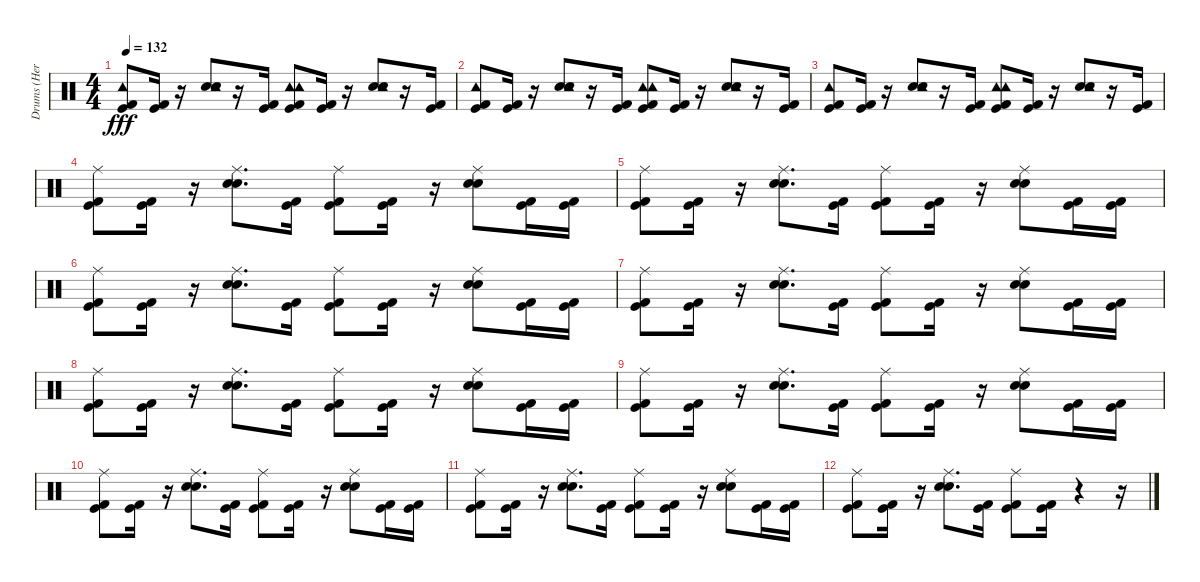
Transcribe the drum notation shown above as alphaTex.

\track ("Drums (Herb Alexander)" "Drums (Her") {instrument percussion}
\staff {score}
\articulation defaults
\ts (4 4)
\tempo 132
\clef neutral
\ks c
("Tambourine (hit)" "Kick (hit)" "Kick (hit) 2").8{dy fff} ("Kick (hit)" "Kick (hit) 2").16 r.16 ("Snare (hit) 2" "Hand Clap (hit)" "Tambourine (hit)").8 r.16 ("Kick (hit)" "Kick (hit) 2").16 ("Tambourine (hit)" "Kick (hit)" "Kick (hit) 2" "Tambourine (hit)").8 ("Kick (hit)" "Kick (hit) 2").16 r.16 ("Snare (hit) 2" "Hand Clap (hit)" "Tambourine (hit)").8 r.16 ("Kick (hit)" "Kick (hit) 2").16 |
("Tambourine (hit)" "Kick (hit)" "Kick (hit) 2").8 ("Kick (hit)" "Kick (hit) 2").16 r.16 ("Snare (hit) 2" "Hand Clap (hit)" "Tambourine (hit)").8 r.16 ("Kick (hit)" "Kick (hit) 2").16 ("Tambourine (hit)" "Kick (hit)" "Kick (hit) 2" "Tambourine (hit)").8 ("Kick (hit)" "Kick (hit) 2").16 r.16 ("Snare (hit) 2" "Hand Clap (hit)" "Tambourine (hit)").8 r.16 ("Kick (hit)" "Kick (hit) 2").16 |
("Tambourine (hit)" "Kick (hit)" "Kick (hit) 2").8 ("Kick (hit)" "Kick (hit) 2").16 r.16 ("Snare (hit) 2" "Hand Clap (hit)" "Tambourine (hit)").8 r.16 ("Kick (hit)" "Kick (hit) 2").16 ("Tambourine (hit)" "Kick (hit)" "Kick (hit) 2" "Tambourine (hit)").8 ("Kick (hit)" "Kick (hit) 2").16 r.16 ("Snare (hit) 2" "Hand Clap (hit)" "Tambourine (hit)").8 r.16 ("Kick (hit)" "Kick (hit) 2").16 |
("Ride (middle)" "Kick (hit)" "Kick (hit) 2").8 ("Kick (hit)" "Kick (hit) 2").16 r.16 ("Ride (middle)" "Snare (hit) 2" "Hand Clap (hit)").8{d} ("Kick (hit)" "Kick (hit) 2").16 ("Ride (middle)" "Kick (hit)" "Kick (hit) 2").8 ("Kick (hit)" "Kick (hit) 2").16 r.16 ("Ride (middle)" "Snare (hit) 2" "Hand Clap (hit)").8 ("Kick (hit)" "Kick (hit) 2").16 ("Kick (hit)" "Kick (hit) 2").16 |
("Ride (middle)" "Kick (hit)" "Kick (hit) 2").8 ("Kick (hit)" "Kick (hit) 2").16 r.16 ("Ride (middle)" "Snare (hit) 2" "Hand Clap (hit)").8{d} ("Kick (hit)" "Kick (hit) 2").16 ("Ride (middle)" "Kick (hit)" "Kick (hit) 2").8 ("Kick (hit)" "Kick (hit) 2").16 r.16 ("Ride (middle)" "Snare (hit) 2" "Hand Clap (hit)").8 ("Kick (hit)" "Kick (hit) 2").16 ("Kick (hit)" "Kick (hit) 2").16 |
("Ride (middle)" "Kick (hit)" "Kick (hit) 2").8 ("Kick (hit)" "Kick (hit) 2").16 r.16 ("Ride (middle)" "Snare (hit) 2" "Hand Clap (hit)").8{d} ("Kick (hit)" "Kick (hit) 2").16 ("Ride (middle)" "Kick (hit)" "Kick (hit) 2").8 ("Kick (hit)" "Kick (hit) 2").16 r.16 ("Ride (middle)" "Snare (hit) 2" "Hand Clap (hit)").8 ("Kick (hit)" "Kick (hit) 2").16 ("Kick (hit)" "Kick (hit) 2").16 |
("Ride (middle)" "Kick (hit)" "Kick (hit) 2").8 ("Kick (hit)" "Kick (hit) 2").16 r.16 ("Ride (middle)" "Snare (hit) 2" "Hand Clap (hit)").8{d} ("Kick (hit)" "Kick (hit) 2").16 ("Ride (middle)" "Kick (hit)" "Kick (hit) 2").8 ("Kick (hit)" "Kick (hit) 2").16 r.16 ("Ride (middle)" "Snare (hit) 2" "Hand Clap (hit)").8 ("Kick (hit)" "Kick (hit) 2").16 ("Kick (hit)" "Kick (hit) 2").16 |
("Ride (middle)" "Kick (hit)" "Kick (hit) 2").8 ("Kick (hit)" "Kick (hit) 2").16 r.16 ("Ride (middle)" "Snare (hit) 2" "Hand Clap (hit)").8{d} ("Kick (hit)" "Kick (hit) 2").16 ("Ride (middle)" "Kick (hit)" "Kick (hit) 2").8 ("Kick (hit)" "Kick (hit) 2").16 r.16 ("Ride (middle)" "Snare (hit) 2" "Hand Clap (hit)").8 ("Kick (hit)" "Kick (hit) 2").16 ("Kick (hit)" "Kick (hit) 2").16 |
("Ride (middle)" "Kick (hit)" "Kick (hit) 2").8 ("Kick (hit)" "Kick (hit) 2").16 r.16 ("Ride (middle)" "Snare (hit) 2" "Hand Clap (hit)").8{d} ("Kick (hit)" "Kick (hit) 2").16 ("Ride (middle)" "Kick (hit)" "Kick (hit) 2").8 ("Kick (hit)" "Kick (hit) 2").16 r.16 ("Ride (middle)" "Snare (hit) 2" "Hand Clap (hit)").8 ("Kick (hit)" "Kick (hit) 2").16 ("Kick (hit)" "Kick (hit) 2").16 |
("Ride (middle)" "Kick (hit)" "Kick (hit) 2").8 ("Kick (hit)" "Kick (hit) 2").16 r.16 ("Ride (middle)" "Snare (hit) 2" "Hand Clap (hit)").8{d} ("Kick (hit)" "Kick (hit) 2").16 ("Ride (middle)" "Kick (hit)" "Kick (hit) 2").8 ("Kick (hit)" "Kick (hit) 2").16 r.16 ("Ride (middle)" "Snare (hit) 2" "Hand Clap (hit)").8 ("Kick (hit)" "Kick (hit) 2").16 ("Kick (hit)" "Kick (hit) 2").16 |
("Ride (middle)" "Kick (hit)" "Kick (hit) 2").8 ("Kick (hit)" "Kick (hit) 2").16 r.16 ("Ride (middle)" "Snare (hit) 2" "Hand Clap (hit)").8{d} ("Kick (hit)" "Kick (hit) 2").16 ("Ride (middle)" "Kick (hit)" "Kick (hit) 2").8 ("Kick (hit)" "Kick (hit) 2").16 r.16 ("Ride (middle)" "Snare (hit) 2" "Hand Clap (hit)").8 ("Kick (hit)" "Kick (hit) 2").16 ("Kick (hit)" "Kick (hit) 2").16 |
("Ride (middle)" "Kick (hit)" "Kick (hit) 2").8 ("Kick (hit)" "Kick (hit) 2").16 r.16 ("Ride (middle)" "Snare (hit) 2" "Hand Clap (hit)").8{d} ("Kick (hit)" "Kick (hit) 2").16 ("Ride (middle)" "Kick (hit)" "Kick (hit) 2").8 ("Kick (hit)" "Kick (hit) 2").16 r.4 r.16
